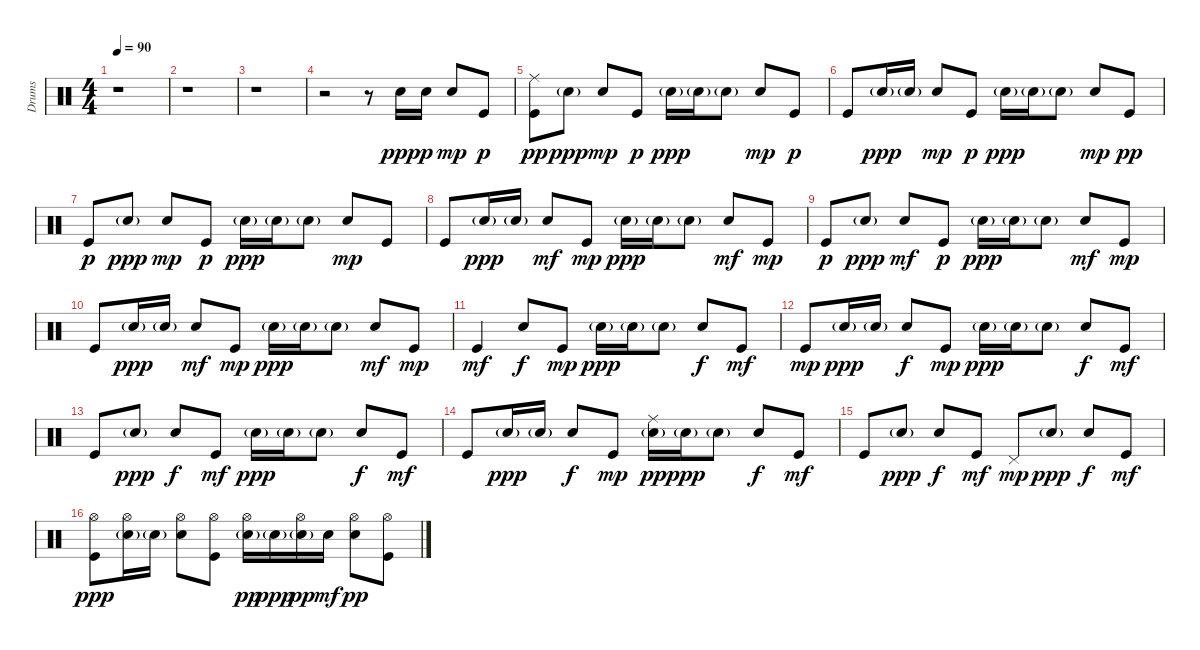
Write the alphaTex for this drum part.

\track ("Drums" "Drums") {instrument percussion}
\staff {score}
\articulation defaults
\ts (4 4)
\tempo 90
\clef neutral
\ks c
r.1{dy ppp} |
r.1 |
r.1 |
r.2 r.8 "Snare (hit) 2".16 "Snare (hit) 2".16{dy p} "Snare (hit) 2".8{dy mp} "Kick (hit)".8{dy p} |
("Kick (hit)" "Ride (middle)").8{dy pp} "Snare (hit) 2"{g}.8{dy ppp} "Snare (hit) 2".8{dy mp} "Kick (hit)".8{dy p} "Snare (hit) 2"{g}.16{dy ppp} "Snare (hit) 2"{g}.16 "Snare (hit) 2"{g}.8 "Snare (hit) 2".8{dy mp} "Kick (hit)".8{dy p} |
"Kick (hit)".8 "Snare (hit) 2"{g}.16{dy ppp} "Snare (hit) 2"{g}.16 "Snare (hit) 2".8{dy mp} "Kick (hit)".8{dy p} "Snare (hit) 2"{g}.16{dy ppp} "Snare (hit) 2"{g}.16 "Snare (hit) 2"{g}.8 "Snare (hit) 2".8{dy mp} "Kick (hit)".8{dy pp} |
"Kick (hit)".8{dy p} "Snare (hit) 2"{g}.8{dy ppp} "Snare (hit) 2".8{dy mp} "Kick (hit)".8{dy p} "Snare (hit) 2"{g}.16{dy ppp} "Snare (hit) 2"{g}.16 "Snare (hit) 2"{g}.8 "Snare (hit) 2".8{dy mp} "Kick (hit)".8 |
"Kick (hit)".8 "Snare (hit) 2"{g}.16{dy ppp} "Snare (hit) 2"{g}.16 "Snare (hit) 2".8{dy mf} "Kick (hit)".8{dy mp} "Snare (hit) 2"{g}.16{dy ppp} "Snare (hit) 2"{g}.16 "Snare (hit) 2"{g}.8 "Snare (hit) 2".8{dy mf} "Kick (hit)".8{dy mp} |
"Kick (hit)".8{dy p} "Snare (hit) 2"{g}.8{dy ppp} "Snare (hit) 2".8{dy mf} "Kick (hit)".8{dy p} "Snare (hit) 2"{g}.16{dy ppp} "Snare (hit) 2"{g}.16 "Snare (hit) 2"{g}.8 "Snare (hit) 2".8{dy mf} "Kick (hit)".8{dy mp} |
"Kick (hit)".8 "Snare (hit) 2"{g}.16{dy ppp} "Snare (hit) 2"{g}.16 "Snare (hit) 2".8{dy mf} "Kick (hit)".8{dy mp} "Snare (hit) 2"{g}.16{dy ppp} "Snare (hit) 2"{g}.16 "Snare (hit) 2"{g}.8 "Snare (hit) 2".8{dy mf} "Kick (hit)".8{dy mp} |
"Kick (hit)".4{dy mf} "Snare (hit) 2".8{dy f} "Kick (hit)".8{dy mp} "Snare (hit) 2"{g}.16{dy ppp} "Snare (hit) 2"{g}.16 "Snare (hit) 2"{g}.8 "Snare (hit) 2".8{dy f} "Kick (hit)".8{dy mf} |
"Kick (hit)".8{dy mp} "Snare (hit) 2"{g}.16{dy ppp} "Snare (hit) 2"{g}.16 "Snare (hit) 2".8{dy f} "Kick (hit)".8{dy mp} "Snare (hit) 2"{g}.16{dy ppp} "Snare (hit) 2"{g}.16 "Snare (hit) 2"{g}.8 "Snare (hit) 2".8{dy f} "Kick (hit)".8{dy mf} |
"Kick (hit)".8 "Snare (hit) 2"{g}.8{dy ppp} "Snare (hit) 2".8{dy f} "Kick (hit)".8{dy mf} "Snare (hit) 2"{g}.16{dy ppp} "Snare (hit) 2"{g}.16 "Snare (hit) 2"{g}.8 "Snare (hit) 2".8{dy f} "Kick (hit)".8{dy mf} |
"Kick (hit)".8 "Snare (hit) 2"{g}.16{dy ppp} "Snare (hit) 2"{g}.16 "Snare (hit) 2".8{dy f} "Kick (hit)".8{dy mp} ("Snare (hit) 2"{g} "Ride (middle)").16{dy pp} "Snare (hit) 2"{g}.16{dy ppp} "Snare (hit) 2"{g}.8 "Snare (hit) 2".8{dy f} "Kick (hit)".8{dy mf} |
"Kick (hit)".8 "Snare (hit) 2"{g}.8{dy ppp} "Snare (hit) 2".8{dy f} "Kick (hit)".8{dy mf} "Pedal Hi-Hat (hit)".8{dy mp} "Snare (hit) 2"{g}.8{dy ppp} "Snare (hit) 2".8{dy f} "Kick (hit)".8{dy mf} |
("Kick (hit)" "Hi-Hat (open)").8{dy ppp} ("Snare (hit) 2"{g} "Hi-Hat (open)").16 "Snare (hit) 2"{g}.16 ("Snare (hit) 2" "Hi-Hat (open)").8 ("Kick (hit)" "Hi-Hat (open)").8 ("Snare (hit) 2"{g} "Hi-Hat (open)").16{dy pp} "Snare (hit) 2"{g}.16{dy ppp} ("Snare (hit) 2"{g} "Hi-Hat (open)").16{dy pp} "Snare (hit) 2".16{dy mf} ("Snare (hit) 2" "Hi-Hat (open)").8{dy pp} ("Kick (hit)" "Hi-Hat (open)").8
